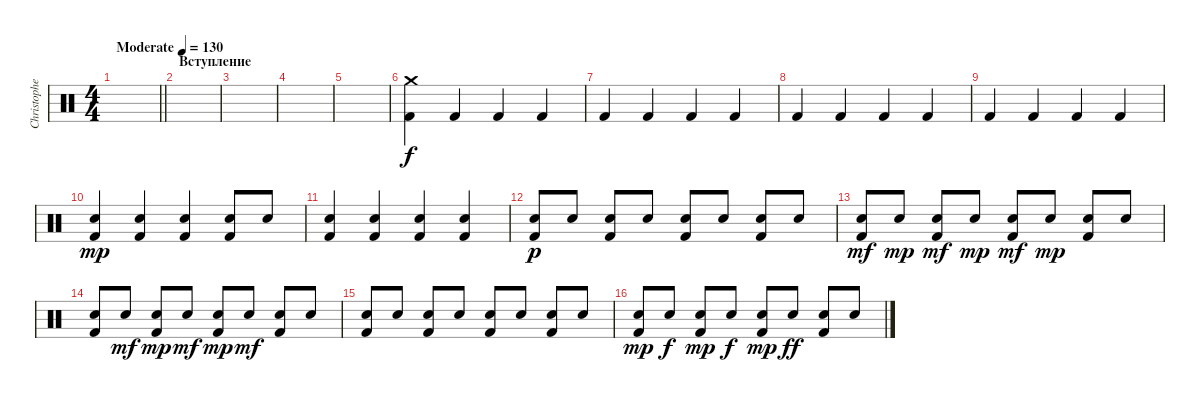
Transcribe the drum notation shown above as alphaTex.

\track ("Christopher Schneider" "Christophe") {instrument percussion}
\staff {score}
\articulation defaults
\ts (4 4)
\section ("" "")
\tempo (130 "Moderate")
\clef neutral
\barLineRight lightlight
\ks c
|
\section ("" "Вступление")
|
|
|
|
("Crash medium (hit)" "Kick (hit) 2").4 "Kick (hit) 2".4 "Kick (hit) 2".4 "Kick (hit) 2".4 |
"Kick (hit) 2".4 "Kick (hit) 2".4 "Kick (hit) 2".4 "Kick (hit) 2".4 |
"Kick (hit) 2".4 "Kick (hit) 2".4 "Kick (hit) 2".4 "Kick (hit) 2".4 |
"Kick (hit) 2".4 "Kick (hit) 2".4 "Kick (hit) 2".4 "Kick (hit) 2".4 |
("Kick (hit) 2" "Electric Snare (hit)").4{dy mp} ("Kick (hit) 2" "Electric Snare (hit)").4 ("Kick (hit) 2" "Electric Snare (hit)").4 ("Kick (hit) 2" "Electric Snare (hit)").8 "Electric Snare (hit)".8 |
("Kick (hit) 2" "Electric Snare (hit)").4 ("Kick (hit) 2" "Electric Snare (hit)").4 ("Kick (hit) 2" "Electric Snare (hit)").4 ("Kick (hit) 2" "Electric Snare (hit)").4 |
("Kick (hit) 2" "Electric Snare (hit)").8{dy p} "Electric Snare (hit)".8 ("Kick (hit) 2" "Electric Snare (hit)").8 "Electric Snare (hit)".8 ("Kick (hit) 2" "Electric Snare (hit)").8 "Electric Snare (hit)".8 ("Kick (hit) 2" "Electric Snare (hit)").8 "Electric Snare (hit)".8 |
("Kick (hit) 2" "Electric Snare (hit)").8{dy mf} "Electric Snare (hit)".8{dy mp} ("Kick (hit) 2" "Electric Snare (hit)").8{dy mf} "Electric Snare (hit)".8{dy mp} ("Kick (hit) 2" "Electric Snare (hit)").8{dy mf} "Electric Snare (hit)".8{dy mp} ("Kick (hit) 2" "Electric Snare (hit)").8 "Electric Snare (hit)".8 |
("Kick (hit) 2" "Electric Snare (hit)").8 "Electric Snare (hit)".8{dy mf} ("Kick (hit) 2" "Electric Snare (hit)").8{dy mp} "Electric Snare (hit)".8{dy mf} ("Kick (hit) 2" "Electric Snare (hit)").8{dy mp} "Electric Snare (hit)".8{dy mf} ("Kick (hit) 2" "Electric Snare (hit)").8 "Electric Snare (hit)".8 |
("Kick (hit) 2" "Electric Snare (hit)").8 "Electric Snare (hit)".8 ("Kick (hit) 2" "Electric Snare (hit)").8 "Electric Snare (hit)".8 ("Kick (hit) 2" "Electric Snare (hit)").8 "Electric Snare (hit)".8 ("Kick (hit) 2" "Electric Snare (hit)").8 "Electric Snare (hit)".8 |
("Kick (hit) 2" "Electric Snare (hit)").8{dy mp} "Electric Snare (hit)".8{dy f} ("Kick (hit) 2" "Electric Snare (hit)").8{dy mp} "Electric Snare (hit)".8{dy f} ("Kick (hit) 2" "Electric Snare (hit)").8{dy mp} "Electric Snare (hit)".8{dy ff} ("Kick (hit) 2" "Electric Snare (hit)").8 "Electric Snare (hit)".8
